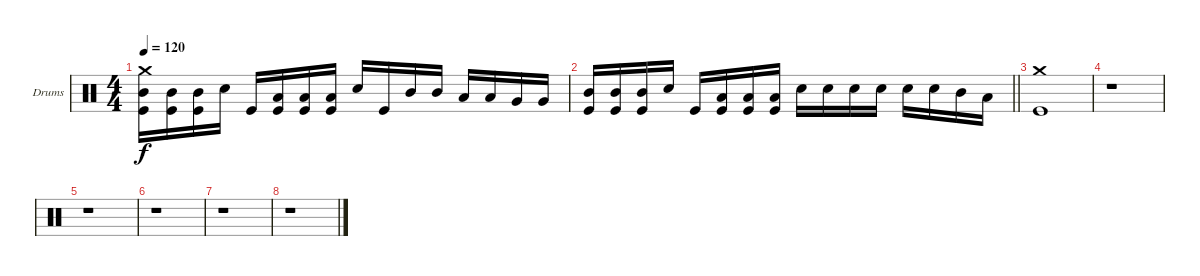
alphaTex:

\bracketExtendMode groupsimilarinstruments
\firstSystemTrackNameOrientation horizontal
\otherSystemsTrackNameOrientation horizontal
\track ("Drumkit" "Drums") {instrument percussion}
\staff {score}
\articulation defaults
\ts (4 4)
\tempo 120
\clef neutral
\ks c
("Crash medium (hit)" "Kick (hit)" "Mid Tom (hit)").16{dy f} ("Kick (hit)" "Mid Tom (hit)").16 ("Kick (hit)" "Mid Tom (hit)").16 "Snare (hit) 2".16 "Kick (hit)".16 ("Kick (hit)" "Low Tom (hit)").16 ("Kick (hit)" "Low Tom (hit)").16 ("Kick (hit)" "Low Tom (hit)").16 "Snare (hit) 2".16 "Kick (hit)".16 "Mid Tom (hit)".16 "Mid Tom (hit)".16 "Low Tom (hit)".16 "Low Tom (hit)".16 "Very Low Tom (hit)".16 "Very Low Tom (hit)".16 |
\barLineRight lightlight
("Kick (hit)" "Mid Tom (hit)").16 ("Kick (hit)" "Mid Tom (hit)").16 ("Kick (hit)" "Mid Tom (hit)").16 "Snare (hit) 2".16 "Kick (hit)".16 ("Kick (hit)" "Low Tom (hit)").16 ("Kick (hit)" "Low Tom (hit)").16 ("Kick (hit)" "Low Tom (hit)").16 "Snare (hit) 2".16 "Snare (hit) 2".16 "Snare (hit) 2".16 "Snare (hit) 2".16 "Snare (hit) 2".16 "Snare (hit) 2".16 "Mid Tom (hit)".16 "Low Tom (hit)".16 |
\section ("" "")
("Crash medium (hit)" "Kick (hit)").1 |
r.1 |
r.1 |
r.1 |
r.1 |
r.1
